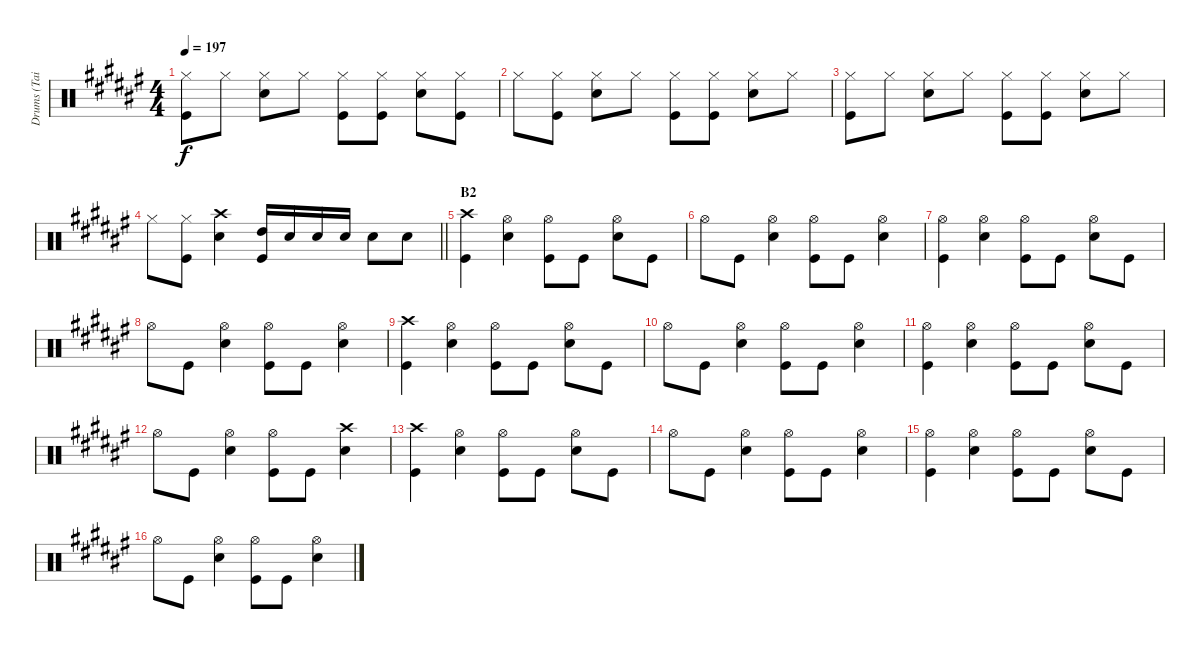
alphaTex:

\track ("Drums (Tainaka Ritsu)" "Drums (Tai") {instrument percussion}
\staff {score}
\articulation defaults
\ts (4 4)
\tempo 197
\clef neutral
\ks f#
("Hi-Hat (closed)" "Kick (hit)").8{dy f} "Hi-Hat (closed)".8 ("Hi-Hat (closed)" "Snare (hit) 2").8 "Hi-Hat (closed)".8 ("Hi-Hat (closed)" "Kick (hit)").8 ("Hi-Hat (closed)" "Kick (hit)").8 ("Hi-Hat (closed)" "Snare (hit) 2").8 ("Hi-Hat (closed)" "Kick (hit)").8 |
"Hi-Hat (closed)".8 ("Hi-Hat (closed)" "Kick (hit)").8 ("Hi-Hat (closed)" "Snare (hit) 2").8 "Hi-Hat (closed)".8 ("Hi-Hat (closed)" "Kick (hit)").8 ("Hi-Hat (closed)" "Kick (hit)").8 ("Hi-Hat (closed)" "Snare (hit) 2").8 "Hi-Hat (closed)".8 |
("Hi-Hat (closed)" "Kick (hit)").8 "Hi-Hat (closed)".8 ("Hi-Hat (closed)" "Snare (hit) 2").8 "Hi-Hat (closed)".8 ("Hi-Hat (closed)" "Kick (hit)").8 ("Hi-Hat (closed)" "Kick (hit)").8 ("Hi-Hat (closed)" "Snare (hit) 2").8 "Hi-Hat (closed)".8 |
\barLineRight lightlight "Hi-Hat (closed)".8
("Hi-Hat (closed)" "Kick (hit)").8 ("Crash high (hit)" "Snare (hit) 2").4 ("High Tom (hit)" "Kick (hit)").16 "Snare (hit) 2".16 "Snare (hit) 2".16 "Snare (hit) 2".16 "Snare (hit) 2".8 "Snare (hit) 2".8 |
\section ("" "B2")
("Crash high (hit)" "Kick (hit)").4 ("Hi-Hat (open)" "Snare (hit) 2").4 ("Hi-Hat (open)" "Kick (hit)").8 "Kick (hit)".8 ("Hi-Hat (open)" "Snare (hit) 2").8 "Kick (hit)".8 |
"Hi-Hat (open)".8 "Kick (hit)".8 ("Hi-Hat (open)" "Snare (hit) 2").4 ("Hi-Hat (open)" "Kick (hit)").8 "Kick (hit)".8 ("Hi-Hat (open)" "Snare (hit) 2").4 |
("Hi-Hat (open)" "Kick (hit)").4 ("Hi-Hat (open)" "Snare (hit) 2").4 ("Hi-Hat (open)" "Kick (hit)").8 "Kick (hit)".8 ("Hi-Hat (open)" "Snare (hit) 2").8 "Kick (hit)".8 |
"Hi-Hat (open)".8 "Kick (hit)".8 ("Hi-Hat (open)" "Snare (hit) 2").4 ("Hi-Hat (open)" "Kick (hit)").8 "Kick (hit)".8 ("Hi-Hat (open)" "Snare (hit) 2").4 |
("Crash high (hit)" "Kick (hit)").4 ("Hi-Hat (open)" "Snare (hit) 2").4 ("Hi-Hat (open)" "Kick (hit)").8 "Kick (hit)".8 ("Hi-Hat (open)" "Snare (hit) 2").8 "Kick (hit)".8 |
"Hi-Hat (open)".8 "Kick (hit)".8 ("Hi-Hat (open)" "Snare (hit) 2").4 ("Hi-Hat (open)" "Kick (hit)").8 "Kick (hit)".8 ("Hi-Hat (open)" "Snare (hit) 2").4 |
("Hi-Hat (open)" "Kick (hit)").4 ("Hi-Hat (open)" "Snare (hit) 2").4 ("Hi-Hat (open)" "Kick (hit)").8 "Kick (hit)".8 ("Hi-Hat (open)" "Snare (hit) 2").8 "Kick (hit)".8 |
"Hi-Hat (open)".8 "Kick (hit)".8 ("Hi-Hat (open)" "Snare (hit) 2").4 ("Hi-Hat (open)" "Kick (hit)").8 "Kick (hit)".8 ("Crash high (hit)" "Snare (hit) 2").4 |
("Crash high (hit)" "Kick (hit)").4 ("Hi-Hat (open)" "Snare (hit) 2").4 ("Hi-Hat (open)" "Kick (hit)").8 "Kick (hit)".8 ("Hi-Hat (open)" "Snare (hit) 2").8 "Kick (hit)".8 |
"Hi-Hat (open)".8 "Kick (hit)".8 ("Hi-Hat (open)" "Snare (hit) 2").4 ("Hi-Hat (open)" "Kick (hit)").8 "Kick (hit)".8 ("Hi-Hat (open)" "Snare (hit) 2").4 |
("Hi-Hat (open)" "Kick (hit)").4 ("Hi-Hat (open)" "Snare (hit) 2").4 ("Hi-Hat (open)" "Kick (hit)").8 "Kick (hit)".8 ("Hi-Hat (open)" "Snare (hit) 2").8 "Kick (hit)".8 |
"Hi-Hat (open)".8 "Kick (hit)".8 ("Hi-Hat (open)" "Snare (hit) 2").4 ("Hi-Hat (open)" "Kick (hit)").8 "Kick (hit)".8 ("Hi-Hat (open)" "Snare (hit) 2").4
